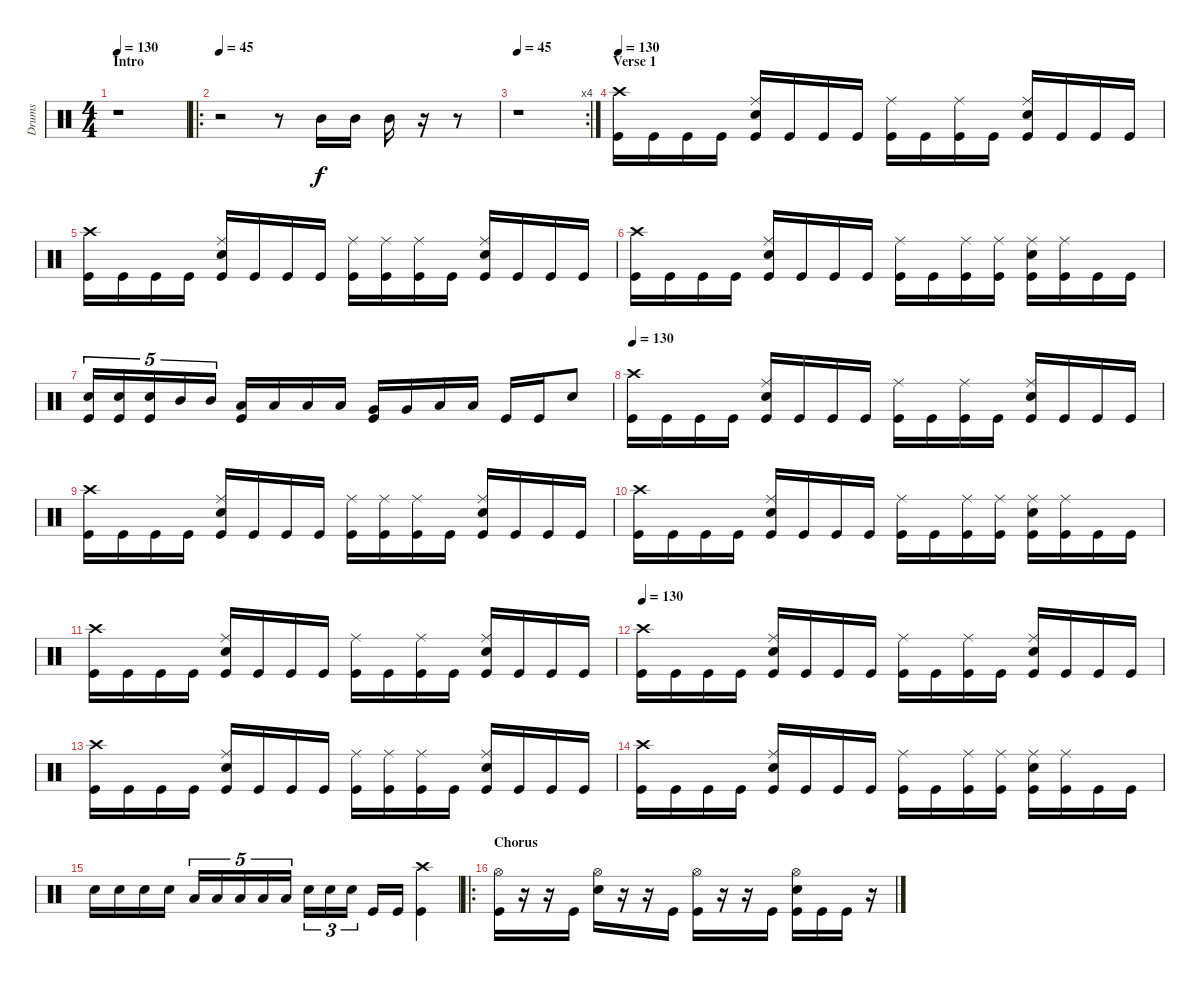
\track ("Drums" "Drums") {instrument percussion}
\staff {score}
\articulation defaults
\ts (4 4)
\section ("" "Intro")
\tempo 130
\tempo 45
\tempo 130
\clef neutral
\ks c
r.1{dy f} |
\ro
\tempo 45
r.2 r.8 "Mid Tom (hit)".16 "Mid Tom (hit)".16 "Mid Tom (hit)".16 r.16 r.8 |
\rc 4
\tempo 45
r.1 |
\section ("" "Verse 1")
\tempo 130
("Crash high (hit)" "Kick (hit)").16 "Kick (hit)".16 "Kick (hit)".16 "Kick (hit)".16 ("Ride (middle)" "Electric Snare (hit)" "Kick (hit)").16 "Kick (hit)".16 "Kick (hit)".16 "Kick (hit)".16 ("Ride (middle)" "Kick (hit)").16 "Kick (hit)".16 ("Ride (middle)" "Kick (hit)").16 "Kick (hit)".16 ("Ride (middle)" "Electric Snare (hit)" "Kick (hit)").16 "Kick (hit)".16 "Kick (hit)".16 "Kick (hit)".16 |
("Crash high (hit)" "Kick (hit)").16 "Kick (hit)".16 "Kick (hit)".16 "Kick (hit)".16 ("Ride (middle)" "Electric Snare (hit)" "Kick (hit)").16 "Kick (hit)".16 "Kick (hit)".16 "Kick (hit)".16 ("Ride (middle)" "Kick (hit)").16 ("Ride (middle)" "Kick (hit)").16 ("Ride (middle)" "Kick (hit)").16 "Kick (hit)".16 ("Ride (middle)" "Electric Snare (hit)" "Kick (hit)").16 "Kick (hit)".16 "Kick (hit)".16 "Kick (hit)".16 |
("Crash high (hit)" "Kick (hit)").16 "Kick (hit)".16 "Kick (hit)".16 "Kick (hit)".16 ("Ride (middle)" "Electric Snare (hit)" "Kick (hit)").16 "Kick (hit)".16 "Kick (hit)".16 "Kick (hit)".16 ("Ride (middle)" "Kick (hit)").16 "Kick (hit)".16 ("Ride (middle)" "Kick (hit)").16 ("Ride (middle)" "Kick (hit)").16 ("Ride (middle)" "Electric Snare (hit)" "Kick (hit)").16 ("Ride (middle)" "Kick (hit)").16 "Kick (hit)".16 "Kick (hit)".16 |
("Electric Snare (hit)" "Kick (hit)").16{tu (5 4)} ("Electric Snare (hit)" "Kick (hit)").16{tu (5 4)} ("Electric Snare (hit)" "Kick (hit)").16{tu (5 4)} "Mid Tom (hit)".16{tu (5 4)} "Mid Tom (hit)".16{tu (5 4)} ("Low Tom (hit)" "Kick (hit)").16 "Low Tom (hit)".16 "Low Tom (hit)".16 "Low Tom (hit)".16 ("Very Low Tom (hit)" "Kick (hit)").16 "Very Low Tom (hit)".16 "Low Floor Tom (hit)".16 "Low Floor Tom (hit)".16 "Kick (hit)".16 "Kick (hit)".16 "Electric Snare (hit)".8 |
\tempo 130
("Crash high (hit)" "Kick (hit)").16 "Kick (hit)".16 "Kick (hit)".16 "Kick (hit)".16 ("Ride (middle)" "Electric Snare (hit)" "Kick (hit)").16 "Kick (hit)".16 "Kick (hit)".16 "Kick (hit)".16 ("Ride (middle)" "Kick (hit)").16 "Kick (hit)".16 ("Ride (middle)" "Kick (hit)").16 "Kick (hit)".16 ("Ride (middle)" "Electric Snare (hit)" "Kick (hit)").16 "Kick (hit)".16 "Kick (hit)".16 "Kick (hit)".16 |
("Crash high (hit)" "Kick (hit)").16 "Kick (hit)".16 "Kick (hit)".16 "Kick (hit)".16 ("Ride (middle)" "Electric Snare (hit)" "Kick (hit)").16 "Kick (hit)".16 "Kick (hit)".16 "Kick (hit)".16 ("Ride (middle)" "Kick (hit)").16 ("Ride (middle)" "Kick (hit)").16 ("Ride (middle)" "Kick (hit)").16 "Kick (hit)".16 ("Ride (middle)" "Electric Snare (hit)" "Kick (hit)").16 "Kick (hit)".16 "Kick (hit)".16 "Kick (hit)".16 |
("Crash high (hit)" "Kick (hit)").16 "Kick (hit)".16 "Kick (hit)".16 "Kick (hit)".16 ("Ride (middle)" "Electric Snare (hit)" "Kick (hit)").16 "Kick (hit)".16 "Kick (hit)".16 "Kick (hit)".16 ("Ride (middle)" "Kick (hit)").16 "Kick (hit)".16 ("Ride (middle)" "Kick (hit)").16 ("Ride (middle)" "Kick (hit)").16 ("Ride (middle)" "Electric Snare (hit)" "Kick (hit)").16 ("Ride (middle)" "Kick (hit)").16 "Kick (hit)".16 "Kick (hit)".16 |
("Crash high (hit)" "Kick (hit)").16 "Kick (hit)".16 "Kick (hit)".16 "Kick (hit)".16 ("Ride (middle)" "Electric Snare (hit)" "Kick (hit)").16 "Kick (hit)".16 "Kick (hit)".16 "Kick (hit)".16 ("Ride (middle)" "Kick (hit)").16 "Kick (hit)".16 ("Ride (middle)" "Kick (hit)").16 "Kick (hit)".16 ("Ride (middle)" "Electric Snare (hit)" "Kick (hit)").16 "Kick (hit)".16 "Kick (hit)".16 "Kick (hit)".16 |
\tempo 130
("Crash high (hit)" "Kick (hit)").16 "Kick (hit)".16 "Kick (hit)".16 "Kick (hit)".16 ("Ride (middle)" "Electric Snare (hit)" "Kick (hit)").16 "Kick (hit)".16 "Kick (hit)".16 "Kick (hit)".16 ("Ride (middle)" "Kick (hit)").16 "Kick (hit)".16 ("Ride (middle)" "Kick (hit)").16 "Kick (hit)".16 ("Ride (middle)" "Electric Snare (hit)" "Kick (hit)").16 "Kick (hit)".16 "Kick (hit)".16 "Kick (hit)".16 |
("Crash high (hit)" "Kick (hit)").16 "Kick (hit)".16 "Kick (hit)".16 "Kick (hit)".16 ("Ride (middle)" "Electric Snare (hit)" "Kick (hit)").16 "Kick (hit)".16 "Kick (hit)".16 "Kick (hit)".16 ("Ride (middle)" "Kick (hit)").16 ("Ride (middle)" "Kick (hit)").16 ("Ride (middle)" "Kick (hit)").16 "Kick (hit)".16 ("Ride (middle)" "Electric Snare (hit)" "Kick (hit)").16 "Kick (hit)".16 "Kick (hit)".16 "Kick (hit)".16 |
("Crash high (hit)" "Kick (hit)").16 "Kick (hit)".16 "Kick (hit)".16 "Kick (hit)".16 ("Ride (middle)" "Electric Snare (hit)" "Kick (hit)").16 "Kick (hit)".16 "Kick (hit)".16 "Kick (hit)".16 ("Ride (middle)" "Kick (hit)").16 "Kick (hit)".16 ("Ride (middle)" "Kick (hit)").16 ("Ride (middle)" "Kick (hit)").16 ("Ride (middle)" "Electric Snare (hit)" "Kick (hit)").16 ("Ride (middle)" "Kick (hit)").16 "Kick (hit)".16 "Kick (hit)".16 |
"Electric Snare (hit)".16 "Electric Snare (hit)".16 "Electric Snare (hit)".16 "Electric Snare (hit)".16 "Low Tom (hit)".16{tu (5 4)} "Low Tom (hit)".16{tu (5 4)} "Low Tom (hit)".16{tu (5 4)} "Low Tom (hit)".16{tu (5 4)} "Low Tom (hit)".16{tu (5 4)} "Electric Snare (hit)".16{tu (3 2)} "Electric Snare (hit)".16{tu (3 2)} "Electric Snare (hit)".16{tu (3 2)} "Kick (hit)".16 "Kick (hit)".16 ("Crash high (hit)" "Kick (hit)").4 |
\ro
\section ("" "Chorus")
("Hi-Hat (open)" "Kick (hit)").16 r.16 r.16 "Kick (hit)".16 ("Hi-Hat (open)" "Electric Snare (hit)").16 r.16 r.16 "Kick (hit)".16 ("Hi-Hat (open)" "Kick (hit)").16 r.16 r.16 "Kick (hit)".16 ("Hi-Hat (open)" "Electric Snare (hit)" "Kick (hit)").16 "Kick (hit)".16 "Kick (hit)".16 r.16
